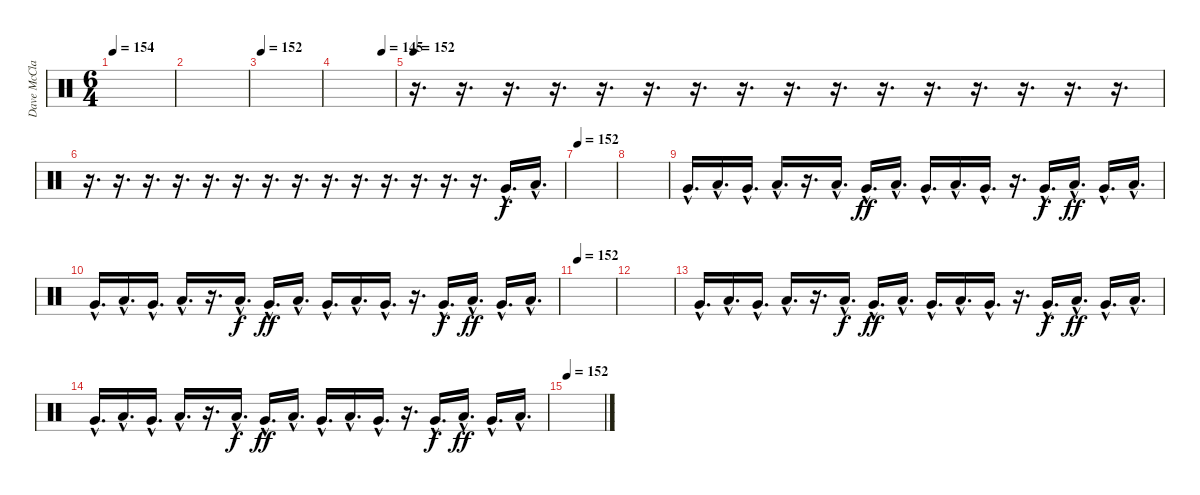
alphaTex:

\track ("Dave McClain" "Dave McCla") {instrument percussion}
\staff {score}
\articulation defaults
\ts (6 4)
\tempo 154
\clef neutral
\ks c
|
|
\tempo 152
|
\tempo (145 0.7916666666666666)
|
\tempo 152
r.16{d} r.16{d} r.16{d} r.16{d} r.16{d} r.16{d} r.16{d} r.16{d} r.16{d} r.16{d} r.16{d} r.16{d} r.16{d} r.16{d} r.16{d} r.16{d} |
r.16{d} r.16{d} r.16{d} r.16{d} r.16{d} r.16{d} r.16{d} r.16{d} r.16{d} r.16{d} r.16{d} r.16{d} r.16{d} r.16{d} "Very Low Tom (hit)"{hac}.16{d} "Low Tom (hit)"{hac}.16{d} |
\tempo 152
|
|
"Very Low Tom (hit)"{hac}.16{d} "Low Tom (hit)"{hac}.16{d} "Very Low Tom (hit)"{hac}.16{d} "Low Tom (hit)"{hac}.16{d} r.16{d} "Low Tom (hit)"{hac}.16{d dy f} "Very Low Tom (hit)"{hac}.16{d dy ff} "Low Tom (hit)"{hac}.16{d} "Very Low Tom (hit)"{hac}.16{d} "Low Tom (hit)"{hac}.16{d} "Very Low Tom (hit)"{hac}.16{d} r.16{d} "Very Low Tom (hit)"{hac}.16{d dy f} "Low Tom (hit)"{hac}.16{d dy ff} "Very Low Tom (hit)"{hac}.16{d} "Low Tom (hit)"{hac}.16{d} |
"Very Low Tom (hit)"{hac}.16{d} "Low Tom (hit)"{hac}.16{d} "Very Low Tom (hit)"{hac}.16{d} "Low Tom (hit)"{hac}.16{d} r.16{d} "Low Tom (hit)"{hac}.16{d dy f} "Very Low Tom (hit)"{hac}.16{d dy ff} "Low Tom (hit)"{hac}.16{d} "Very Low Tom (hit)"{hac}.16{d} "Low Tom (hit)"{hac}.16{d} "Very Low Tom (hit)"{hac}.16{d} r.16{d} "Very Low Tom (hit)"{hac}.16{d dy f} "Low Tom (hit)"{hac}.16{d dy ff} "Very Low Tom (hit)"{hac}.16{d} "Low Tom (hit)"{hac}.16{d} |
\tempo 152
|
|
"Very Low Tom (hit)"{hac}.16{d} "Low Tom (hit)"{hac}.16{d} "Very Low Tom (hit)"{hac}.16{d} "Low Tom (hit)"{hac}.16{d} r.16{d} "Low Tom (hit)"{hac}.16{d dy f} "Very Low Tom (hit)"{hac}.16{d dy ff} "Low Tom (hit)"{hac}.16{d} "Very Low Tom (hit)"{hac}.16{d} "Low Tom (hit)"{hac}.16{d} "Very Low Tom (hit)"{hac}.16{d} r.16{d} "Very Low Tom (hit)"{hac}.16{d dy f} "Low Tom (hit)"{hac}.16{d dy ff} "Very Low Tom (hit)"{hac}.16{d} "Low Tom (hit)"{hac}.16{d} |
"Very Low Tom (hit)"{hac}.16{d} "Low Tom (hit)"{hac}.16{d} "Very Low Tom (hit)"{hac}.16{d} "Low Tom (hit)"{hac}.16{d} r.16{d} "Low Tom (hit)"{hac}.16{d dy f} "Very Low Tom (hit)"{hac}.16{d dy ff} "Low Tom (hit)"{hac}.16{d} "Very Low Tom (hit)"{hac}.16{d} "Low Tom (hit)"{hac}.16{d} "Very Low Tom (hit)"{hac}.16{d} r.16{d} "Very Low Tom (hit)"{hac}.16{d dy f} "Low Tom (hit)"{hac}.16{d dy ff} "Very Low Tom (hit)"{hac}.16{d} "Low Tom (hit)"{hac}.16{d} |
\tempo 152
